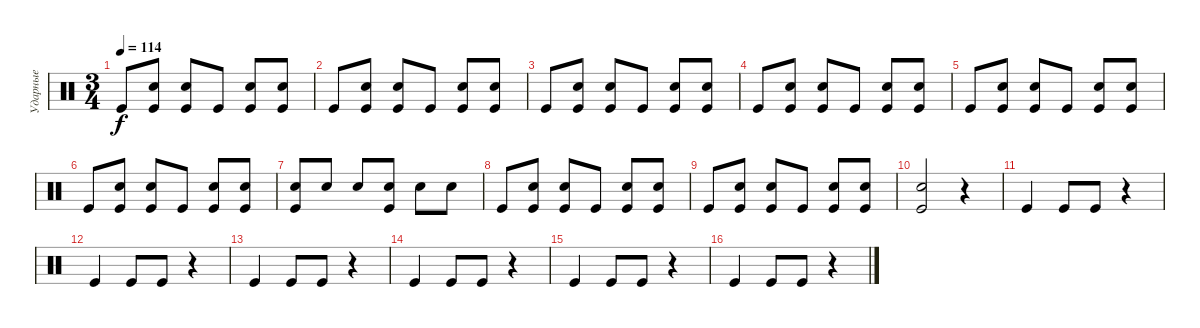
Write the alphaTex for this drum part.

\track ("Ударные" "Ударные") {instrument percussion}
\staff {score}
\articulation defaults
\ts (3 4)
\tempo 114
\clef neutral
\ks c "Kick (hit)".8{dy f}
("Snare (hit) 2" "Kick (hit)").8 ("Snare (hit) 2" "Kick (hit)").8 "Kick (hit)".8 ("Snare (hit) 2" "Kick (hit)").8 ("Snare (hit) 2" "Kick (hit)").8 |
"Kick (hit)".8 ("Snare (hit) 2" "Kick (hit)").8 ("Snare (hit) 2" "Kick (hit)").8 "Kick (hit)".8 ("Snare (hit) 2" "Kick (hit)").8 ("Snare (hit) 2" "Kick (hit)").8 |
"Kick (hit)".8 ("Snare (hit) 2" "Kick (hit)").8 ("Snare (hit) 2" "Kick (hit)").8 "Kick (hit)".8 ("Snare (hit) 2" "Kick (hit)").8 ("Snare (hit) 2" "Kick (hit)").8 |
"Kick (hit)".8 ("Snare (hit) 2" "Kick (hit)").8 ("Snare (hit) 2" "Kick (hit)").8 "Kick (hit)".8 ("Snare (hit) 2" "Kick (hit)").8 ("Snare (hit) 2" "Kick (hit)").8 |
"Kick (hit)".8 ("Snare (hit) 2" "Kick (hit)").8 ("Snare (hit) 2" "Kick (hit)").8 "Kick (hit)".8 ("Snare (hit) 2" "Kick (hit)").8 ("Snare (hit) 2" "Kick (hit)").8 |
"Kick (hit)".8 ("Snare (hit) 2" "Kick (hit)").8 ("Snare (hit) 2" "Kick (hit)").8 "Kick (hit)".8 ("Snare (hit) 2" "Kick (hit)").8 ("Snare (hit) 2" "Kick (hit)").8 |
("Kick (hit)" "Snare (hit) 2").8 "Snare (hit) 2".8 "Snare (hit) 2".8 ("Kick (hit)" "Snare (hit) 2").8 "Snare (hit) 2".8 "Snare (hit) 2".8 |
"Kick (hit)".8 ("Snare (hit) 2" "Kick (hit)").8 ("Snare (hit) 2" "Kick (hit)").8 "Kick (hit)".8 ("Snare (hit) 2" "Kick (hit)").8 ("Snare (hit) 2" "Kick (hit)").8 |
"Kick (hit)".8 ("Snare (hit) 2" "Kick (hit)").8 ("Snare (hit) 2" "Kick (hit)").8 "Kick (hit)".8 ("Snare (hit) 2" "Kick (hit)").8 ("Snare (hit) 2" "Kick (hit)").8 |
("Snare (hit) 2" "Kick (hit)").2{volume 15} r.4 |
"Kick (hit)".4{volume 7} "Kick (hit)".8 "Kick (hit)".8 r.4 |
"Kick (hit)".4 "Kick (hit)".8 "Kick (hit)".8 r.4 |
"Kick (hit)".4 "Kick (hit)".8 "Kick (hit)".8 r.4 |
"Kick (hit)".4 "Kick (hit)".8 "Kick (hit)".8 r.4 |
"Kick (hit)".4 "Kick (hit)".8 "Kick (hit)".8 r.4 |
"Kick (hit)".4 "Kick (hit)".8 "Kick (hit)".8 r.4
